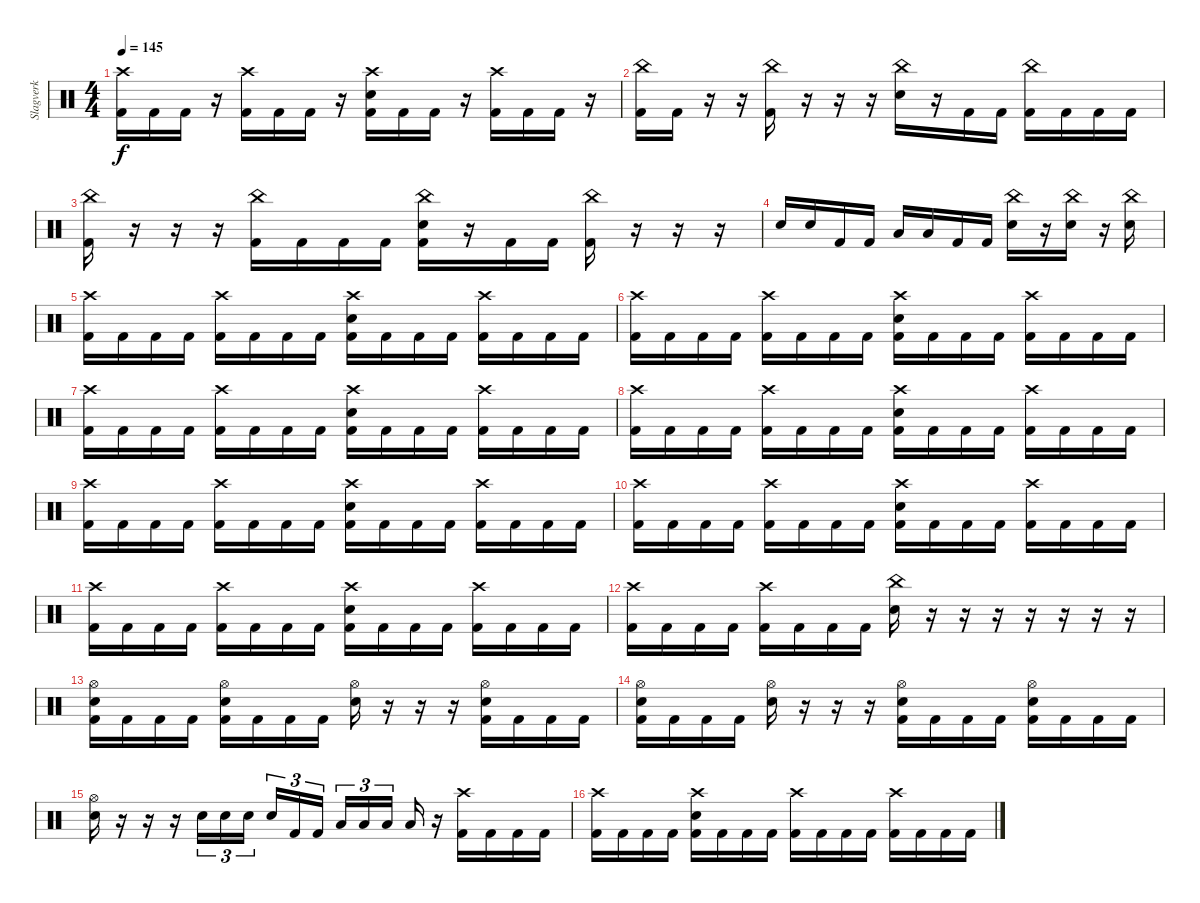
\track ("Slagverk" "Slagverk") {instrument percussion}
\staff {score}
\articulation defaults
\ts (4 4)
\tempo 145
\clef neutral
\ks c
("Crash high (hit)" "Kick (hit) 2").16{dy f} "Kick (hit) 2".16 "Kick (hit) 2".16 r.16 ("Crash high (hit)" "Kick (hit) 2").16 "Kick (hit) 2".16 "Kick (hit) 2".16 r.16 ("Crash high (hit)" "Kick (hit) 2" "Electric Snare (hit)").16 "Kick (hit) 2".16 "Kick (hit) 2".16 r.16 ("Crash high (hit)" "Kick (hit) 2").16 "Kick (hit) 2".16 "Kick (hit) 2".16 r.16 |
("China (hit)" "Kick (hit) 2").16 "Kick (hit) 2".16 r.16 r.16 ("China (hit)" "Kick (hit) 2").16 r.16 r.16 r.16 ("China (hit)" "Electric Snare (hit)").16 r.16 "Kick (hit) 2".16 "Kick (hit) 2".16 ("China (hit)" "Kick (hit) 2").16 "Kick (hit) 2".16 "Kick (hit) 2".16 "Kick (hit) 2".16 |
("China (hit)" "Kick (hit) 2").16 r.16 r.16 r.16 ("China (hit)" "Kick (hit) 2").16 "Kick (hit) 2".16 "Kick (hit) 2".16 "Kick (hit) 2".16 ("China (hit)" "Kick (hit) 2" "Electric Snare (hit)").16 r.16 "Kick (hit) 2".16 "Kick (hit) 2".16 ("China (hit)" "Kick (hit) 2").16 r.16 r.16 r.16 |
"Electric Snare (hit)".16 "Electric Snare (hit)".16 "Kick (hit) 2".16 "Kick (hit) 2".16 "Low Tom (hit)".16 "Low Tom (hit)".16 "Kick (hit) 2".16 "Kick (hit) 2".16 ("China (hit)" "Electric Snare (hit)").16 r.16 ("China (hit)" "Electric Snare (hit)").16 r.16 ("China (hit)" "Electric Snare (hit)").16 |
("Crash high (hit)" "Kick (hit) 2").16 "Kick (hit) 2".16 "Kick (hit) 2".16 "Kick (hit) 2".16 ("Crash high (hit)" "Kick (hit) 2").16 "Kick (hit) 2".16 "Kick (hit) 2".16 "Kick (hit) 2".16 ("Crash high (hit)" "Electric Snare (hit)" "Kick (hit) 2").16 "Kick (hit) 2".16 "Kick (hit) 2".16 "Kick (hit) 2".16 ("Crash high (hit)" "Kick (hit) 2").16 "Kick (hit) 2".16 "Kick (hit) 2".16 "Kick (hit) 2".16 |
("Crash high (hit)" "Kick (hit) 2").16 "Kick (hit) 2".16 "Kick (hit) 2".16 "Kick (hit) 2".16 ("Crash high (hit)" "Kick (hit) 2").16 "Kick (hit) 2".16 "Kick (hit) 2".16 "Kick (hit) 2".16 ("Crash high (hit)" "Electric Snare (hit)" "Kick (hit) 2").16 "Kick (hit) 2".16 "Kick (hit) 2".16 "Kick (hit) 2".16 ("Crash high (hit)" "Kick (hit) 2").16 "Kick (hit) 2".16 "Kick (hit) 2".16 "Kick (hit) 2".16 |
("Crash high (hit)" "Kick (hit) 2").16 "Kick (hit) 2".16 "Kick (hit) 2".16 "Kick (hit) 2".16 ("Crash high (hit)" "Kick (hit) 2").16 "Kick (hit) 2".16 "Kick (hit) 2".16 "Kick (hit) 2".16 ("Crash high (hit)" "Electric Snare (hit)" "Kick (hit) 2").16 "Kick (hit) 2".16 "Kick (hit) 2".16 "Kick (hit) 2".16 ("Crash high (hit)" "Kick (hit) 2").16 "Kick (hit) 2".16 "Kick (hit) 2".16 "Kick (hit) 2".16 |
("Crash high (hit)" "Kick (hit) 2").16 "Kick (hit) 2".16 "Kick (hit) 2".16 "Kick (hit) 2".16 ("Crash high (hit)" "Kick (hit) 2").16 "Kick (hit) 2".16 "Kick (hit) 2".16 "Kick (hit) 2".16 ("Crash high (hit)" "Electric Snare (hit)" "Kick (hit) 2").16 "Kick (hit) 2".16 "Kick (hit) 2".16 "Kick (hit) 2".16 ("Crash high (hit)" "Kick (hit) 2").16 "Kick (hit) 2".16 "Kick (hit) 2".16 "Kick (hit) 2".16 |
("Crash high (hit)" "Kick (hit) 2").16 "Kick (hit) 2".16 "Kick (hit) 2".16 "Kick (hit) 2".16 ("Crash high (hit)" "Kick (hit) 2").16 "Kick (hit) 2".16 "Kick (hit) 2".16 "Kick (hit) 2".16 ("Crash high (hit)" "Electric Snare (hit)" "Kick (hit) 2").16 "Kick (hit) 2".16 "Kick (hit) 2".16 "Kick (hit) 2".16 ("Crash high (hit)" "Kick (hit) 2").16 "Kick (hit) 2".16 "Kick (hit) 2".16 "Kick (hit) 2".16 |
("Crash high (hit)" "Kick (hit) 2").16 "Kick (hit) 2".16 "Kick (hit) 2".16 "Kick (hit) 2".16 ("Crash high (hit)" "Kick (hit) 2").16 "Kick (hit) 2".16 "Kick (hit) 2".16 "Kick (hit) 2".16 ("Crash high (hit)" "Electric Snare (hit)" "Kick (hit) 2").16 "Kick (hit) 2".16 "Kick (hit) 2".16 "Kick (hit) 2".16 ("Crash high (hit)" "Kick (hit) 2").16 "Kick (hit) 2".16 "Kick (hit) 2".16 "Kick (hit) 2".16 |
("Crash high (hit)" "Kick (hit) 2").16 "Kick (hit) 2".16 "Kick (hit) 2".16 "Kick (hit) 2".16 ("Crash high (hit)" "Kick (hit) 2").16 "Kick (hit) 2".16 "Kick (hit) 2".16 "Kick (hit) 2".16 ("Crash high (hit)" "Electric Snare (hit)" "Kick (hit) 2").16 "Kick (hit) 2".16 "Kick (hit) 2".16 "Kick (hit) 2".16 ("Crash high (hit)" "Kick (hit) 2").16 "Kick (hit) 2".16 "Kick (hit) 2".16 "Kick (hit) 2".16 |
("Crash high (hit)" "Kick (hit) 2").16 "Kick (hit) 2".16 "Kick (hit) 2".16 "Kick (hit) 2".16 ("Crash high (hit)" "Kick (hit) 2").16 "Kick (hit) 2".16 "Kick (hit) 2".16 "Kick (hit) 2".16 ("China (hit)" "Electric Snare (hit)").16 r.16 r.16 r.16 r.16 r.16 r.16 r.16 |
("Electric Snare (hit)" "Hi-Hat (open)" "Kick (hit) 2").16 "Kick (hit) 2".16 "Kick (hit) 2".16 "Kick (hit) 2".16 ("Electric Snare (hit)" "Hi-Hat (open)" "Kick (hit) 2").16 "Kick (hit) 2".16 "Kick (hit) 2".16 "Kick (hit) 2".16 ("Electric Snare (hit)" "Hi-Hat (open)").16 r.16 r.16 r.16 ("Electric Snare (hit)" "Hi-Hat (open)" "Kick (hit) 2").16 "Kick (hit) 2".16 "Kick (hit) 2".16 "Kick (hit) 2".16 |
("Electric Snare (hit)" "Hi-Hat (open)" "Kick (hit) 2").16 "Kick (hit) 2".16 "Kick (hit) 2".16 "Kick (hit) 2".16 ("Electric Snare (hit)" "Hi-Hat (open)").16 r.16 r.16 r.16 ("Electric Snare (hit)" "Hi-Hat (open)" "Kick (hit) 2").16 "Kick (hit) 2".16 "Kick (hit) 2".16 "Kick (hit) 2".16 ("Electric Snare (hit)" "Hi-Hat (open)" "Kick (hit) 2").16 "Kick (hit) 2".16 "Kick (hit) 2".16 "Kick (hit) 2".16 |
("Electric Snare (hit)" "Hi-Hat (open)").16 r.16 r.16 r.16 "Electric Snare (hit)".16{tu (3 2)} "Electric Snare (hit)".16{tu (3 2)} "Electric Snare (hit)".16{tu (3 2) beam splitsecondary} "Electric Snare (hit)".16{tu (3 2)} "Kick (hit) 2".16{tu (3 2)} "Kick (hit) 2".16{tu (3 2)} "Low Tom (hit)".16{tu (3 2)} "Low Tom (hit)".16{tu (3 2)} "Low Tom (hit)".16{tu (3 2) beam splitsecondary} "Low Tom (hit)".16 r.16 ("Crash high (hit)" "Kick (hit) 2").16 "Kick (hit) 2".16 "Kick (hit) 2".16 "Kick (hit) 2".16 |
("Crash high (hit)" "Kick (hit) 2").16 "Kick (hit) 2".16 "Kick (hit) 2".16 "Kick (hit) 2".16 ("Crash high (hit)" "Kick (hit) 2" "Electric Snare (hit)").16 "Kick (hit) 2".16 "Kick (hit) 2".16 "Kick (hit) 2".16 ("Crash high (hit)" "Kick (hit) 2").16 "Kick (hit) 2".16 "Kick (hit) 2".16 "Kick (hit) 2".16 ("Crash high (hit)" "Kick (hit) 2").16 "Kick (hit) 2".16 "Kick (hit) 2".16 "Kick (hit) 2".16
